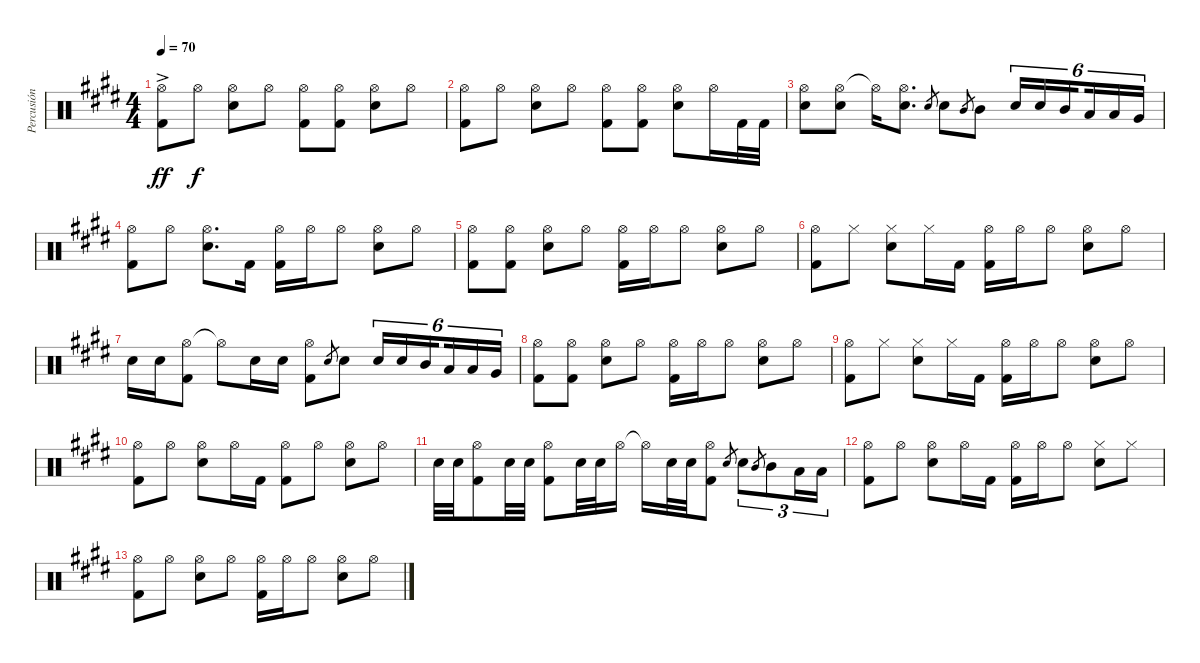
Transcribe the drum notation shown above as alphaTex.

\track ("Percusión" "Percusión") {instrument percussion}
\staff {score}
\articulation defaults
\ts (4 4)
\tempo 70
\clef neutral
\ks e
("Hi-Hat (open)"{ac} "Kick (hit) 2").8{dy ff} "Hi-Hat (open)".8{dy f} ("Hi-Hat (open)" "Snare (hit) 2").8 "Hi-Hat (open)".8 ("Hi-Hat (open)" "Kick (hit) 2").8 ("Hi-Hat (open)" "Kick (hit) 2").8 ("Hi-Hat (open)" "Snare (hit) 2").8 "Hi-Hat (open)".8 |
("Hi-Hat (open)" "Kick (hit) 2").8 "Hi-Hat (open)".8 ("Hi-Hat (open)" "Snare (hit) 2").8 "Hi-Hat (open)".8 ("Hi-Hat (open)" "Kick (hit) 2").8 ("Hi-Hat (open)" "Kick (hit) 2").8 ("Hi-Hat (open)" "Snare (hit) 2").8 "Hi-Hat (open)".16 "Kick (hit) 2".32 "Kick (hit) 2".32 |
("Hi-Hat (open)" "Snare (hit) 2").8 ("Hi-Hat (open)" "Snare (hit) 2").8 "Hi-Hat (open)"{t}.16 ("Hi-Hat (open)" "Snare (hit) 2").8{d} "Snare (hit) 2".8{gr} "Snare (hit) 2".8 "Mid Tom (hit)".8{gr} "Mid Tom (hit)".8 "Snare (hit) 2".16{tu (6 4)} "Snare (hit) 2".16{tu (6 4)} "Mid Tom (hit)".16{tu (6 4) beam splitsecondary} "Low Tom (hit)".16{tu (6 4)} "Low Tom (hit)".16{tu (6 4)} "Very Low Tom (hit)".16{tu (6 4)} |
("Hi-Hat (open)" "Kick (hit) 2").8 "Hi-Hat (open)".8 ("Hi-Hat (open)" "Snare (hit) 2").8{d} "Kick (hit) 2".16 ("Hi-Hat (open)" "Kick (hit) 2").16 "Hi-Hat (open)".16 "Hi-Hat (open)".8 ("Hi-Hat (open)" "Snare (hit) 2").8 "Hi-Hat (open)".8 |
("Hi-Hat (open)" "Kick (hit) 2").8 ("Hi-Hat (open)" "Kick (hit) 2").8 ("Hi-Hat (open)" "Snare (hit) 2").8 "Hi-Hat (open)".8 ("Hi-Hat (open)" "Kick (hit) 2").16 "Hi-Hat (open)".16 "Hi-Hat (open)".8 ("Hi-Hat (open)" "Snare (hit) 2").8 "Hi-Hat (open)".8 |
("Hi-Hat (open)" "Kick (hit) 2").8 "Hi-Hat (closed)".8 ("Hi-Hat (closed)" "Snare (hit) 2").8 "Hi-Hat (closed)".16 "Kick (hit) 2".16 ("Hi-Hat (open)" "Kick (hit) 2").16 "Hi-Hat (open)".16 "Hi-Hat (open)".8 ("Hi-Hat (open)" "Snare (hit) 2").8 "Hi-Hat (open)".8 |
"Snare (hit) 2".16 "Snare (hit) 2".16 ("Hi-Hat (open)" "Kick (hit) 2").8 "Hi-Hat (open)"{t}.8 "Snare (hit) 2".16 "Snare (hit) 2".16 ("Hi-Hat (open)" "Kick (hit) 2").8 "Snare (hit) 2".8{gr} "Snare (hit) 2".8 "Snare (hit) 2".16{tu (6 4)} "Snare (hit) 2".16{tu (6 4)} "Mid Tom (hit)".16{tu (6 4) beam splitsecondary} "Low Tom (hit)".16{tu (6 4)} "Low Tom (hit)".16{tu (6 4)} "Very Low Tom (hit)".16{tu (6 4)} |
("Hi-Hat (open)" "Kick (hit) 2").8 ("Hi-Hat (open)" "Kick (hit) 2").8 ("Hi-Hat (open)" "Snare (hit) 2").8 "Hi-Hat (open)".8 ("Hi-Hat (open)" "Kick (hit) 2").16 "Hi-Hat (open)".16 "Hi-Hat (open)".8 ("Hi-Hat (open)" "Snare (hit) 2").8 "Hi-Hat (open)".8 |
("Hi-Hat (open)" "Kick (hit) 2").8 "Hi-Hat (closed)".8 ("Hi-Hat (closed)" "Snare (hit) 2").8 "Hi-Hat (closed)".16 "Kick (hit) 2".16 ("Hi-Hat (open)" "Kick (hit) 2").16 "Hi-Hat (open)".16 "Hi-Hat (open)".8 ("Hi-Hat (open)" "Snare (hit) 2").8 "Hi-Hat (open)".8 |
("Hi-Hat (open)" "Kick (hit) 2").8 "Hi-Hat (open)".8 ("Hi-Hat (open)" "Snare (hit) 2").8 "Hi-Hat (open)".16 "Kick (hit) 2".16 ("Hi-Hat (open)" "Kick (hit) 2").8 "Hi-Hat (open)".8 ("Hi-Hat (open)" "Snare (hit) 2").8 "Hi-Hat (open)".8 |
"Snare (hit) 2".32 "Snare (hit) 2".32 ("Hi-Hat (open)" "Kick (hit) 2").8 "Snare (hit) 2".32 "Snare (hit) 2".32 ("Hi-Hat (open)" "Kick (hit) 2").8 "Snare (hit) 2".32 "Snare (hit) 2".32 "Hi-Hat (open)".16 "Hi-Hat (open)"{t}.16 "Snare (hit) 2".32 "Snare (hit) 2".32 ("Hi-Hat (open)" "Kick (hit) 2").8 "Snare (hit) 2".8{gr} "Snare (hit) 2".8{tu (3 2)} "Mid Tom (hit)".8{gr} "Mid Tom (hit)".8{tu (3 2)} "Low Tom (hit)".16{tu (3 2)} "Low Tom (hit)".16{tu (3 2)} |
("Hi-Hat (open)" "Kick (hit) 2").8 "Hi-Hat (open)".8 ("Hi-Hat (open)" "Snare (hit) 2").8 "Hi-Hat (open)".16 "Kick (hit) 2".16 ("Hi-Hat (open)" "Kick (hit) 2").16 "Hi-Hat (open)".16 "Hi-Hat (open)".8 ("Hi-Hat (closed)" "Snare (hit) 2").8 "Hi-Hat (closed)".8 |
("Hi-Hat (open)" "Kick (hit) 2").8 "Hi-Hat (open)".8 ("Hi-Hat (open)" "Snare (hit) 2").8 "Hi-Hat (open)".8 ("Hi-Hat (open)" "Kick (hit) 2").16 "Hi-Hat (open)".16 "Hi-Hat (open)".8 ("Hi-Hat (open)" "Snare (hit) 2").8 "Hi-Hat (open)".8
